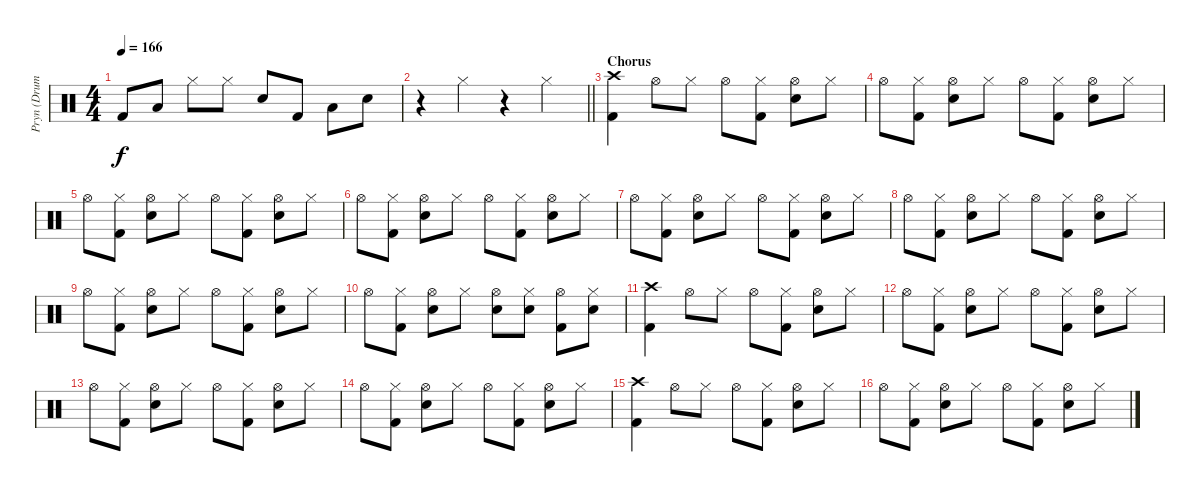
\track ("Pryn (Drums)" "Pryn (Drum") {instrument percussion}
\staff {score}
\articulation defaults
\ts (4 4)
\tempo 166
\clef neutral
\ks c "Kick (hit) 2".8{dy f} "Low Floor Tom (hit)".8 "Hi-Hat (closed)".8 "Hi-Hat (closed)".8 "Snare (hit) 2".8 "Kick (hit) 2".8 "Low Floor Tom (hit)".8 "Snare (hit) 2".8
|
\barLineRight lightlight
r.4 "Hi-Hat (closed)".4 r.4 "Hi-Hat (closed)".4 |
\section ("" "Chorus")
("Crash high (hit)" "Kick (hit) 2").4 "Hi-Hat (open)".8 "Hi-Hat (closed)".8 "Hi-Hat (open)".8 ("Hi-Hat (closed)" "Kick (hit) 2").8 ("Hi-Hat (open)" "Snare (hit) 2").8 "Hi-Hat (closed)".8 |
"Hi-Hat (open)".8 ("Hi-Hat (closed)" "Kick (hit) 2").8 ("Hi-Hat (open)" "Snare (hit) 2").8 "Hi-Hat (closed)".8 "Hi-Hat (open)".8 ("Hi-Hat (closed)" "Kick (hit) 2").8 ("Hi-Hat (open)" "Snare (hit) 2").8 "Hi-Hat (closed)".8 |
"Hi-Hat (open)".8 ("Hi-Hat (closed)" "Kick (hit) 2").8 ("Hi-Hat (open)" "Snare (hit) 2").8 "Hi-Hat (closed)".8 "Hi-Hat (open)".8 ("Hi-Hat (closed)" "Kick (hit) 2").8 ("Hi-Hat (open)" "Snare (hit) 2").8 "Hi-Hat (closed)".8 |
"Hi-Hat (open)".8 ("Hi-Hat (closed)" "Kick (hit) 2").8 ("Hi-Hat (open)" "Snare (hit) 2").8 "Hi-Hat (closed)".8 "Hi-Hat (open)".8 ("Hi-Hat (closed)" "Kick (hit) 2").8 ("Hi-Hat (open)" "Snare (hit) 2").8 "Hi-Hat (closed)".8 |
"Hi-Hat (open)".8 ("Hi-Hat (closed)" "Kick (hit) 2").8 ("Hi-Hat (open)" "Snare (hit) 2").8 "Hi-Hat (closed)".8 "Hi-Hat (open)".8 ("Hi-Hat (closed)" "Kick (hit) 2").8 ("Hi-Hat (open)" "Snare (hit) 2").8 "Hi-Hat (closed)".8 |
"Hi-Hat (open)".8 ("Hi-Hat (closed)" "Kick (hit) 2").8 ("Hi-Hat (open)" "Snare (hit) 2").8 "Hi-Hat (closed)".8 "Hi-Hat (open)".8 ("Hi-Hat (closed)" "Kick (hit) 2").8 ("Hi-Hat (open)" "Snare (hit) 2").8 "Hi-Hat (closed)".8 |
"Hi-Hat (open)".8 ("Hi-Hat (closed)" "Kick (hit) 2").8 ("Hi-Hat (open)" "Snare (hit) 2").8 "Hi-Hat (closed)".8 "Hi-Hat (open)".8 ("Hi-Hat (closed)" "Kick (hit) 2").8 ("Hi-Hat (open)" "Snare (hit) 2").8 "Hi-Hat (closed)".8 |
"Hi-Hat (open)".8 ("Hi-Hat (closed)" "Kick (hit) 2").8 ("Hi-Hat (open)" "Snare (hit) 2").8 "Hi-Hat (closed)".8 ("Hi-Hat (open)" "Snare (hit) 2").8 ("Hi-Hat (closed)" "Snare (hit) 2").8 ("Hi-Hat (open)" "Kick (hit) 2").8 ("Hi-Hat (closed)" "Snare (hit) 2").8 |
("Crash high (hit)" "Kick (hit) 2").4 "Hi-Hat (open)".8 "Hi-Hat (closed)".8 "Hi-Hat (open)".8 ("Hi-Hat (closed)" "Kick (hit) 2").8 ("Hi-Hat (open)" "Snare (hit) 2").8 "Hi-Hat (closed)".8 |
"Hi-Hat (open)".8 ("Hi-Hat (closed)" "Kick (hit) 2").8 ("Hi-Hat (open)" "Snare (hit) 2").8 "Hi-Hat (closed)".8 "Hi-Hat (open)".8 ("Hi-Hat (closed)" "Kick (hit) 2").8 ("Hi-Hat (open)" "Snare (hit) 2").8 "Hi-Hat (closed)".8 |
"Hi-Hat (open)".8 ("Hi-Hat (closed)" "Kick (hit) 2").8 ("Hi-Hat (open)" "Snare (hit) 2").8 "Hi-Hat (closed)".8 "Hi-Hat (open)".8 ("Hi-Hat (closed)" "Kick (hit) 2").8 ("Hi-Hat (open)" "Snare (hit) 2").8 "Hi-Hat (closed)".8 |
"Hi-Hat (open)".8 ("Hi-Hat (closed)" "Kick (hit) 2").8 ("Hi-Hat (open)" "Snare (hit) 2").8 "Hi-Hat (closed)".8 "Hi-Hat (open)".8 ("Hi-Hat (closed)" "Kick (hit) 2").8 ("Hi-Hat (open)" "Snare (hit) 2").8 "Hi-Hat (closed)".8 |
("Crash high (hit)" "Kick (hit) 2").4 "Hi-Hat (open)".8 "Hi-Hat (closed)".8 "Hi-Hat (open)".8 ("Hi-Hat (closed)" "Kick (hit) 2").8 ("Hi-Hat (open)" "Snare (hit) 2").8 "Hi-Hat (closed)".8 |
"Hi-Hat (open)".8 ("Hi-Hat (closed)" "Kick (hit) 2").8 ("Hi-Hat (open)" "Snare (hit) 2").8 "Hi-Hat (closed)".8 "Hi-Hat (open)".8 ("Hi-Hat (closed)" "Kick (hit) 2").8 ("Hi-Hat (open)" "Snare (hit) 2").8 "Hi-Hat (closed)".8
